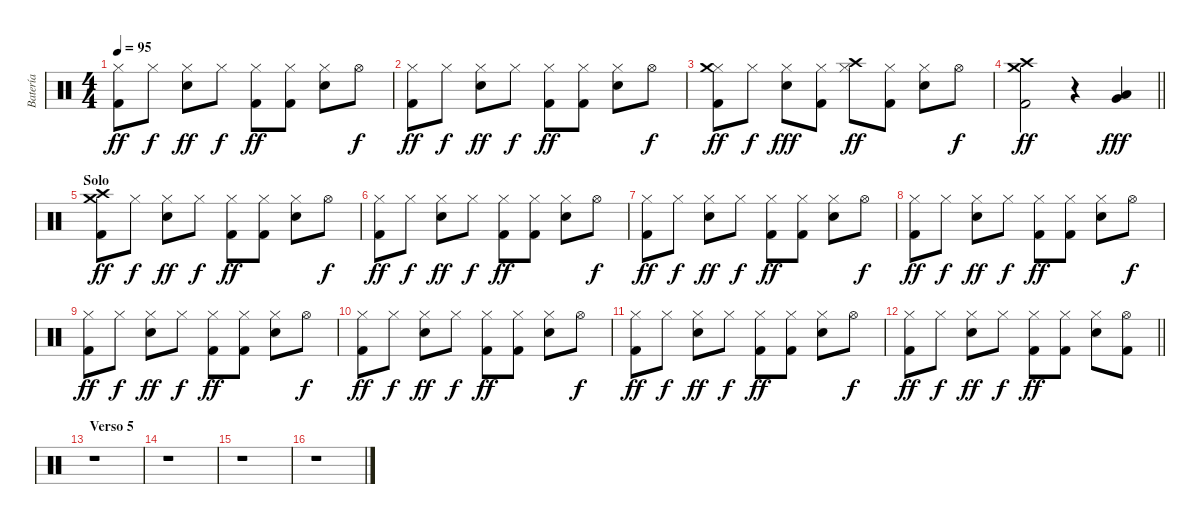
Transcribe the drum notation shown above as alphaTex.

\track ("Batería" "Batería") {instrument percussion}
\staff {score}
\articulation defaults
\ts (4 4)
\tempo 95
\clef neutral
\ks c
("Hi-Hat (closed)" "Kick (hit) 2").8{dy ff} "Hi-Hat (closed)".8{dy f} ("Hi-Hat (closed)" "Electric Snare (hit)").8{dy ff} "Hi-Hat (closed)".8{dy f} ("Hi-Hat (closed)" "Kick (hit) 2").8{dy ff} ("Hi-Hat (closed)" "Kick (hit) 2").8 ("Hi-Hat (closed)" "Electric Snare (hit)").8 "Hi-Hat (open)".8{dy f} |
("Hi-Hat (closed)" "Kick (hit) 2").8{dy ff} "Hi-Hat (closed)".8{dy f} ("Hi-Hat (closed)" "Electric Snare (hit)").8{dy ff} "Hi-Hat (closed)".8{dy f} ("Hi-Hat (closed)" "Kick (hit) 2").8{dy ff} ("Hi-Hat (closed)" "Kick (hit) 2").8 ("Hi-Hat (closed)" "Electric Snare (hit)").8 "Hi-Hat (open)".8{dy f} |
("Hi-Hat (closed)" "Crash medium (hit)" "Kick (hit) 2").8{dy ff} "Hi-Hat (closed)".8{dy f} ("Hi-Hat (closed)" "Electric Snare (hit)").8{dy fff} ("Hi-Hat (closed)" "Kick (hit) 2").8 ("Hi-Hat (closed)" "Crash high (hit)").8{dy ff} ("Hi-Hat (closed)" "Kick (hit) 2").8 ("Hi-Hat (closed)" "Electric Snare (hit)").8 "Hi-Hat (open)".8{dy f} |
\barLineRight lightlight
("Crash medium (hit)" "Crash high (hit)" "Kick (hit) 2").2{dy ff} r.4 ("Very Low Tom (hit)" "Low Tom (hit)").4{dy fff} |
\section ("" "Solo")
("Crash high (hit)" "Crash medium (hit)" "Kick (hit) 2").8{dy ff} "Hi-Hat (closed)".8{dy f} ("Hi-Hat (closed)" "Electric Snare (hit)").8{dy ff} "Hi-Hat (closed)".8{dy f} ("Hi-Hat (closed)" "Kick (hit) 2").8{dy ff} ("Hi-Hat (closed)" "Kick (hit) 2").8 ("Hi-Hat (closed)" "Electric Snare (hit)").8 "Hi-Hat (open)".8{dy f} |
("Hi-Hat (closed)" "Kick (hit) 2").8{dy ff} "Hi-Hat (closed)".8{dy f} ("Hi-Hat (closed)" "Electric Snare (hit)").8{dy ff} "Hi-Hat (closed)".8{dy f} ("Hi-Hat (closed)" "Kick (hit) 2").8{dy ff} ("Hi-Hat (closed)" "Kick (hit) 2").8 ("Hi-Hat (closed)" "Electric Snare (hit)").8 "Hi-Hat (open)".8{dy f} |
("Hi-Hat (closed)" "Kick (hit) 2").8{dy ff} "Hi-Hat (closed)".8{dy f} ("Hi-Hat (closed)" "Electric Snare (hit)").8{dy ff} "Hi-Hat (closed)".8{dy f} ("Hi-Hat (closed)" "Kick (hit) 2").8{dy ff} ("Hi-Hat (closed)" "Kick (hit) 2").8 ("Hi-Hat (closed)" "Electric Snare (hit)").8 "Hi-Hat (open)".8{dy f} |
("Hi-Hat (closed)" "Kick (hit) 2").8{dy ff} "Hi-Hat (closed)".8{dy f} ("Hi-Hat (closed)" "Electric Snare (hit)").8{dy ff} "Hi-Hat (closed)".8{dy f} ("Hi-Hat (closed)" "Kick (hit) 2").8{dy ff} ("Hi-Hat (closed)" "Kick (hit) 2").8 ("Hi-Hat (closed)" "Electric Snare (hit)").8 "Hi-Hat (open)".8{dy f} |
("Hi-Hat (closed)" "Kick (hit) 2").8{dy ff} "Hi-Hat (closed)".8{dy f} ("Hi-Hat (closed)" "Electric Snare (hit)").8{dy ff} "Hi-Hat (closed)".8{dy f} ("Hi-Hat (closed)" "Kick (hit) 2").8{dy ff} ("Hi-Hat (closed)" "Kick (hit) 2").8 ("Hi-Hat (closed)" "Electric Snare (hit)").8 "Hi-Hat (open)".8{dy f} |
("Hi-Hat (closed)" "Kick (hit) 2").8{dy ff} "Hi-Hat (closed)".8{dy f} ("Hi-Hat (closed)" "Electric Snare (hit)").8{dy ff} "Hi-Hat (closed)".8{dy f} ("Hi-Hat (closed)" "Kick (hit) 2").8{dy ff} ("Hi-Hat (closed)" "Kick (hit) 2").8 ("Hi-Hat (closed)" "Electric Snare (hit)").8 "Hi-Hat (open)".8{dy f} |
("Hi-Hat (closed)" "Kick (hit) 2").8{dy ff} "Hi-Hat (closed)".8{dy f} ("Hi-Hat (closed)" "Electric Snare (hit)").8{dy ff} "Hi-Hat (closed)".8{dy f} ("Hi-Hat (closed)" "Kick (hit) 2").8{dy ff} ("Hi-Hat (closed)" "Kick (hit) 2").8 ("Hi-Hat (closed)" "Electric Snare (hit)").8 "Hi-Hat (open)".8{dy f} |
\barLineRight lightlight
("Hi-Hat (closed)" "Kick (hit) 2").8{dy ff} "Hi-Hat (closed)".8{dy f} ("Hi-Hat (closed)" "Electric Snare (hit)").8{dy ff} "Hi-Hat (closed)".8{dy f} ("Hi-Hat (closed)" "Kick (hit) 2").8{dy ff} ("Hi-Hat (closed)" "Kick (hit) 2").8 ("Hi-Hat (closed)" "Electric Snare (hit)").8 ("Hi-Hat (open)" "Kick (hit) 2").8 |
\section ("" "Verso 5")
r.1 |
r.1 |
r.1 |
r.1
